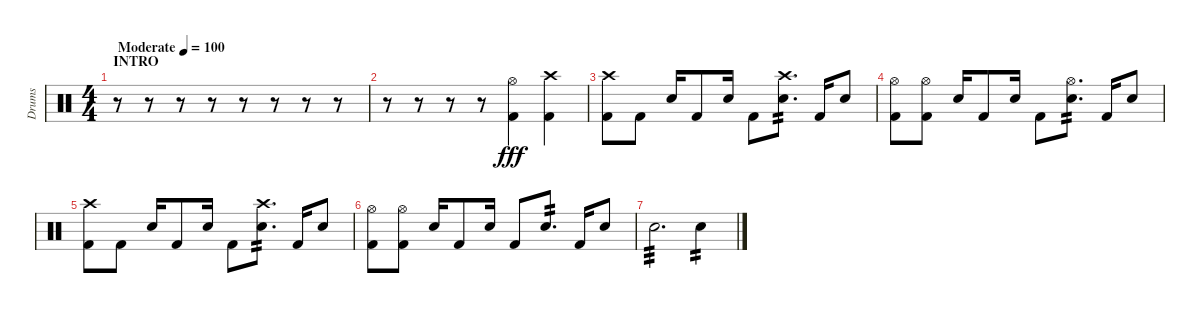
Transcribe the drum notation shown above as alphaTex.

\track ("Drums" "Drums") {instrument percussion}
\staff {score}
\articulation defaults
\ts (4 4)
\section ("" "INTRO")
\tempo (100 "Moderate")
\clef neutral
\ks c
r.8{dy fff} r.8 r.8 r.8 r.8 r.8 r.8 r.8 |
r.8 r.8 r.8 r.8 ("Hi-Hat (open)" "Kick (hit) 2").4 ("Crash high (hit)" "Kick (hit) 2").4 |
("Crash high (hit)" "Kick (hit) 2").8 "Kick (hit) 2".8 "Snare (hit) 2".16 "Kick (hit) 2".8 "Snare (hit) 2".16 "Kick (hit) 2".8 ("Crash high (hit)" "Snare (hit) 2").8{d tp 2} "Kick (hit) 2".16 "Snare (hit) 2".8 |
("Hi-Hat (open)" "Kick (hit) 2").8 ("Hi-Hat (open)" "Kick (hit) 2").8 "Snare (hit) 2".16 "Kick (hit) 2".8 "Snare (hit) 2".16 "Kick (hit) 2".8 ("Hi-Hat (open)" "Snare (hit) 2").8{d tp 2} "Kick (hit) 2".16 "Snare (hit) 2".8 |
("Crash high (hit)" "Kick (hit) 2").8 "Kick (hit) 2".8 "Snare (hit) 2".16 "Kick (hit) 2".8 "Snare (hit) 2".16 "Kick (hit) 2".8 ("Crash high (hit)" "Snare (hit) 2").8{d tp 2} "Kick (hit) 2".16 "Snare (hit) 2".8 |
("Hi-Hat (open)" "Kick (hit) 2").8 ("Hi-Hat (open)" "Kick (hit) 2").8 "Snare (hit) 2".16 "Kick (hit) 2".8 "Snare (hit) 2".16 "Kick (hit) 2".8 "Snare (hit) 2".8{d tp 2} "Kick (hit) 2".16 "Snare (hit) 2".8 |
"Snare (hit) 2".2{d tp 3} "Snare (hit) 2".4{tp 2}
